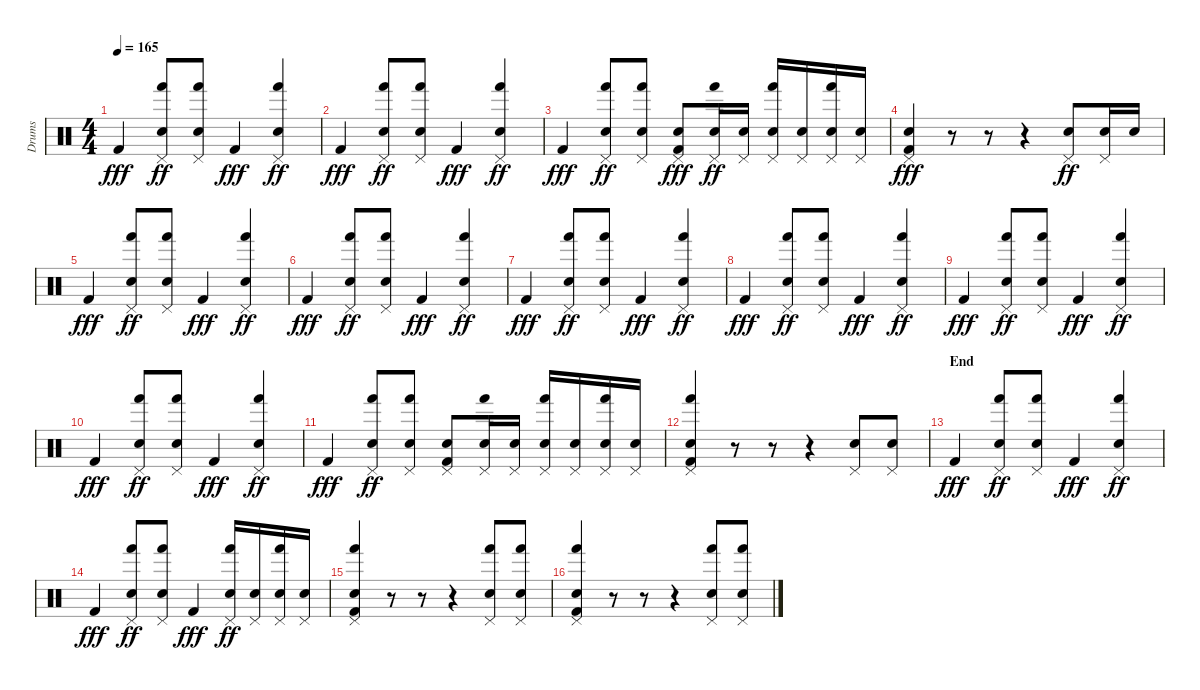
\track ("Drums" "Drums") {instrument percussion}
\staff {score}
\articulation defaults
\ts (4 4)
\tempo 165
\clef neutral
\ks c "Kick (hit) 2".4{dy fff}
("Pedal Hi-Hat (hit)" "Hand (hit)" "Electric Snare (hit)").8{dy ff} ("Pedal Hi-Hat (hit)" "Hand (hit)" "Electric Snare (hit)").8 "Kick (hit) 2".4{dy fff} ("Pedal Hi-Hat (hit)" "Hand (hit)" "Electric Snare (hit)").4{dy ff} |
"Kick (hit) 2".4{dy fff} ("Pedal Hi-Hat (hit)" "Hand (hit)" "Electric Snare (hit)").8{dy ff} ("Pedal Hi-Hat (hit)" "Hand (hit)" "Electric Snare (hit)").8 "Kick (hit) 2".4{dy fff} ("Pedal Hi-Hat (hit)" "Hand (hit)" "Electric Snare (hit)").4{dy ff} |
"Kick (hit) 2".4{dy fff} ("Pedal Hi-Hat (hit)" "Hand (hit)" "Electric Snare (hit)").8{dy ff} ("Pedal Hi-Hat (hit)" "Hand (hit)" "Electric Snare (hit)").8 ("Pedal Hi-Hat (hit)" "Electric Snare (hit)" "Kick (hit) 2").8{dy fff} ("Pedal Hi-Hat (hit)" "Hand (hit)" "Electric Snare (hit)").16{dy ff} ("Pedal Hi-Hat (hit)" "Electric Snare (hit)").16 ("Pedal Hi-Hat (hit)" "Hand (hit)" "Electric Snare (hit)").16 ("Pedal Hi-Hat (hit)" "Electric Snare (hit)").16 ("Pedal Hi-Hat (hit)" "Hand (hit)" "Electric Snare (hit)").16 ("Pedal Hi-Hat (hit)" "Electric Snare (hit)").16 |
("Pedal Hi-Hat (hit)" "Electric Snare (hit)" "Kick (hit) 2").4{dy fff} r.8 r.8 r.4 ("Pedal Hi-Hat (hit)" "Electric Snare (hit)").8{dy ff} ("Pedal Hi-Hat (hit)" "Electric Snare (hit)").16 "Electric Snare (hit)".16 |
"Kick (hit) 2".4{dy fff} ("Pedal Hi-Hat (hit)" "Hand (hit)" "Electric Snare (hit)").8{dy ff} ("Pedal Hi-Hat (hit)" "Hand (hit)" "Electric Snare (hit)").8 "Kick (hit) 2".4{dy fff} ("Pedal Hi-Hat (hit)" "Hand (hit)" "Electric Snare (hit)").4{dy ff} |
"Kick (hit) 2".4{dy fff} ("Pedal Hi-Hat (hit)" "Hand (hit)" "Electric Snare (hit)").8{dy ff} ("Pedal Hi-Hat (hit)" "Hand (hit)" "Electric Snare (hit)").8 "Kick (hit) 2".4{dy fff} ("Pedal Hi-Hat (hit)" "Hand (hit)" "Electric Snare (hit)").4{dy ff} |
"Kick (hit) 2".4{dy fff} ("Pedal Hi-Hat (hit)" "Hand (hit)" "Electric Snare (hit)").8{dy ff} ("Pedal Hi-Hat (hit)" "Hand (hit)" "Electric Snare (hit)").8 "Kick (hit) 2".4{dy fff} ("Pedal Hi-Hat (hit)" "Hand (hit)" "Electric Snare (hit)").4{dy ff} |
"Kick (hit) 2".4{dy fff} ("Pedal Hi-Hat (hit)" "Hand (hit)" "Electric Snare (hit)").8{dy ff} ("Pedal Hi-Hat (hit)" "Hand (hit)" "Electric Snare (hit)").8 "Kick (hit) 2".4{dy fff} ("Pedal Hi-Hat (hit)" "Hand (hit)" "Electric Snare (hit)").4{dy ff} |
"Kick (hit) 2".4{dy fff} ("Pedal Hi-Hat (hit)" "Hand (hit)" "Electric Snare (hit)").8{dy ff} ("Pedal Hi-Hat (hit)" "Hand (hit)" "Electric Snare (hit)").8 "Kick (hit) 2".4{dy fff} ("Pedal Hi-Hat (hit)" "Hand (hit)" "Electric Snare (hit)").4{dy ff} |
"Kick (hit) 2".4{dy fff} ("Pedal Hi-Hat (hit)" "Hand (hit)" "Electric Snare (hit)").8{dy ff} ("Pedal Hi-Hat (hit)" "Hand (hit)" "Electric Snare (hit)").8 "Kick (hit) 2".4{dy fff} ("Pedal Hi-Hat (hit)" "Hand (hit)" "Electric Snare (hit)").4{dy ff} |
"Kick (hit) 2".4{dy fff} ("Pedal Hi-Hat (hit)" "Hand (hit)" "Electric Snare (hit)").8{dy ff} ("Pedal Hi-Hat (hit)" "Hand (hit)" "Electric Snare (hit)").8 ("Pedal Hi-Hat (hit)" "Electric Snare (hit)" "Kick (hit) 2").8 ("Pedal Hi-Hat (hit)" "Hand (hit)" "Electric Snare (hit)").16 ("Pedal Hi-Hat (hit)" "Electric Snare (hit)").16 ("Pedal Hi-Hat (hit)" "Hand (hit)" "Electric Snare (hit)").16 ("Pedal Hi-Hat (hit)" "Electric Snare (hit)").16 ("Pedal Hi-Hat (hit)" "Hand (hit)" "Electric Snare (hit)").16 ("Pedal Hi-Hat (hit)" "Electric Snare (hit)").16 |
("Pedal Hi-Hat (hit)" "Hand (hit)" "Electric Snare (hit)" "Kick (hit) 2").4 r.8 r.8 r.4 ("Pedal Hi-Hat (hit)" "Electric Snare (hit)").8 ("Pedal Hi-Hat (hit)" "Electric Snare (hit)").8 |
\section ("" "End")
"Kick (hit) 2".4{dy fff} ("Pedal Hi-Hat (hit)" "Hand (hit)" "Electric Snare (hit)").8{dy ff} ("Pedal Hi-Hat (hit)" "Hand (hit)" "Electric Snare (hit)").8 "Kick (hit) 2".4{dy fff} ("Pedal Hi-Hat (hit)" "Hand (hit)" "Electric Snare (hit)").4{dy ff} |
"Kick (hit) 2".4{dy fff} ("Pedal Hi-Hat (hit)" "Hand (hit)" "Electric Snare (hit)").8{dy ff} ("Pedal Hi-Hat (hit)" "Hand (hit)" "Electric Snare (hit)").8 "Kick (hit) 2".4{dy fff} ("Pedal Hi-Hat (hit)" "Hand (hit)" "Electric Snare (hit)").16{dy ff} ("Pedal Hi-Hat (hit)" "Electric Snare (hit)").16 ("Pedal Hi-Hat (hit)" "Hand (hit)" "Electric Snare (hit)").16 ("Pedal Hi-Hat (hit)" "Electric Snare (hit)").16 |
("Pedal Hi-Hat (hit)" "Hand (hit)" "Electric Snare (hit)" "Kick (hit) 2").4 r.8 r.8 r.4 ("Pedal Hi-Hat (hit)" "Hand (hit)" "Electric Snare (hit)").8 ("Pedal Hi-Hat (hit)" "Hand (hit)" "Electric Snare (hit)").8 |
("Pedal Hi-Hat (hit)" "Hand (hit)" "Electric Snare (hit)" "Kick (hit) 2").4 r.8 r.8 r.4 ("Pedal Hi-Hat (hit)" "Hand (hit)" "Electric Snare (hit)").8 ("Pedal Hi-Hat (hit)" "Hand (hit)" "Electric Snare (hit)").8
